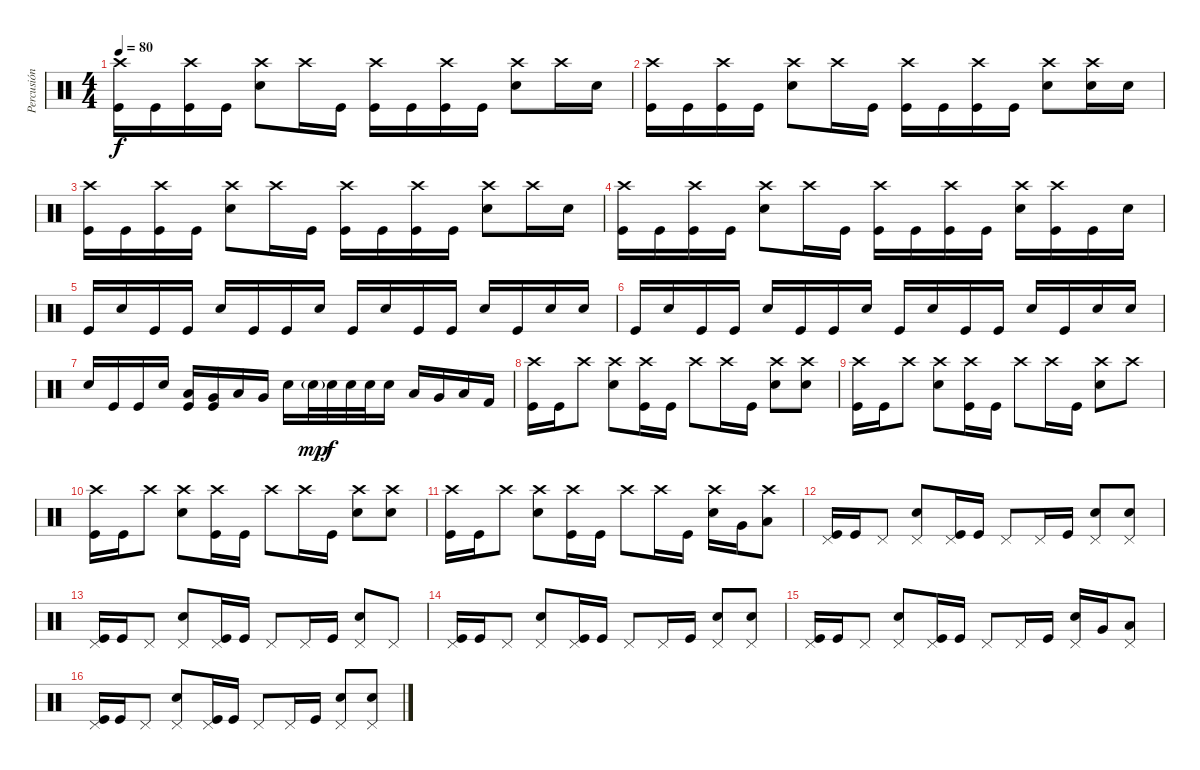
\track ("Percusión" "Percusión") {instrument percussion}
\staff {score}
\articulation defaults
\ts (4 4)
\tempo 80
\clef neutral
\ks c
("Crash high (hit)" "Kick (hit)").16{dy f} "Kick (hit)".16 ("Crash high (hit)" "Kick (hit)").16 "Kick (hit)".16 ("Crash high (hit)" "Snare (hit) 2").8 "Crash high (hit)".16 "Kick (hit)".16 ("Crash high (hit)" "Kick (hit)").16 "Kick (hit)".16 ("Crash high (hit)" "Kick (hit)").16 "Kick (hit)".16 ("Crash high (hit)" "Snare (hit) 2").8 "Crash high (hit)".16 "Snare (hit) 2".16 |
("Crash high (hit)" "Kick (hit)").16 "Kick (hit)".16 ("Crash high (hit)" "Kick (hit)").16 "Kick (hit)".16 ("Crash high (hit)" "Snare (hit) 2").8 "Crash high (hit)".16 "Kick (hit)".16 ("Crash high (hit)" "Kick (hit)").16 "Kick (hit)".16 ("Crash high (hit)" "Kick (hit)").16 "Kick (hit)".16 ("Crash high (hit)" "Snare (hit) 2").8 ("Crash high (hit)" "Snare (hit) 2").16 "Snare (hit) 2".16 |
("Crash high (hit)" "Kick (hit)").16 "Kick (hit)".16 ("Crash high (hit)" "Kick (hit)").16 "Kick (hit)".16 ("Crash high (hit)" "Snare (hit) 2").8 "Crash high (hit)".16 "Kick (hit)".16 ("Crash high (hit)" "Kick (hit)").16 "Kick (hit)".16 ("Crash high (hit)" "Kick (hit)").16 "Kick (hit)".16 ("Crash high (hit)" "Snare (hit) 2").8 "Crash high (hit)".16 "Snare (hit) 2".16 |
("Crash high (hit)" "Kick (hit)").16 "Kick (hit)".16 ("Crash high (hit)" "Kick (hit)").16 "Kick (hit)".16 ("Crash high (hit)" "Snare (hit) 2").8 "Crash high (hit)".16 "Kick (hit)".16 ("Crash high (hit)" "Kick (hit)").16 "Kick (hit)".16 ("Crash high (hit)" "Kick (hit)").16 "Kick (hit)".16 ("Crash high (hit)" "Snare (hit) 2").16 ("Crash high (hit)" "Kick (hit)").16 "Kick (hit)".16 "Snare (hit) 2".16 |
"Kick (hit)".16 "Snare (hit) 2".16 "Kick (hit)".16 "Kick (hit)".16 "Snare (hit) 2".16 "Kick (hit)".16 "Kick (hit)".16 "Snare (hit) 2".16 "Kick (hit)".16 "Snare (hit) 2".16 "Kick (hit)".16 "Kick (hit)".16 "Snare (hit) 2".16 "Kick (hit)".16 "Snare (hit) 2".16 "Snare (hit) 2".16 |
"Kick (hit)".16 "Snare (hit) 2".16 "Kick (hit)".16 "Kick (hit)".16 "Snare (hit) 2".16 "Kick (hit)".16 "Kick (hit)".16 "Snare (hit) 2".16 "Kick (hit)".16 "Snare (hit) 2".16 "Kick (hit)".16 "Kick (hit)".16 "Snare (hit) 2".16 "Kick (hit)".16 "Snare (hit) 2".16 "Snare (hit) 2".16 |
"Snare (hit) 2".16 "Kick (hit)".16 "Kick (hit)".16 "Snare (hit) 2".16 ("Kick (hit)" "Low Tom (hit)").16 ("Kick (hit)" "Very Low Tom (hit)").16 "Low Floor Tom (hit)".16 "Very Low Tom (hit)".16 "Snare (hit) 2".16 "Snare (hit) 2"{g}.32{dy mp} "Snare (hit) 2".32{dy f} "Snare (hit) 2".32 "Snare (hit) 2".32 "Snare (hit) 2".16 "Low Tom (hit)".16 "Very Low Tom (hit)".16 "Low Floor Tom (hit)".16 "Kick (hit) 2".16 |
("Crash high (hit)" "Kick (hit)").16 "Kick (hit)".16 "Crash high (hit)".8 ("Crash high (hit)" "Snare (hit) 2").8 ("Crash high (hit)" "Kick (hit)").16 "Kick (hit)".16 "Crash high (hit)".8 "Crash high (hit)".16 "Kick (hit)".16 ("Crash high (hit)" "Snare (hit) 2").8 ("Crash high (hit)" "Snare (hit) 2").8 |
("Crash high (hit)" "Kick (hit)").16 "Kick (hit)".16 "Crash high (hit)".8 ("Crash high (hit)" "Snare (hit) 2").8 ("Crash high (hit)" "Kick (hit)").16 "Kick (hit)".16 "Crash high (hit)".8 "Crash high (hit)".16 "Kick (hit)".16 ("Crash high (hit)" "Snare (hit) 2").8 "Crash high (hit)".8 |
("Crash high (hit)" "Kick (hit)").16 "Kick (hit)".16 "Crash high (hit)".8 ("Crash high (hit)" "Snare (hit) 2").8 ("Crash high (hit)" "Kick (hit)").16 "Kick (hit)".16 "Crash high (hit)".8 "Crash high (hit)".16 "Kick (hit)".16 ("Crash high (hit)" "Snare (hit) 2").8 ("Crash high (hit)" "Snare (hit) 2").8 |
("Crash high (hit)" "Kick (hit)").16 "Kick (hit)".16 "Crash high (hit)".8 ("Crash high (hit)" "Snare (hit) 2").8 ("Crash high (hit)" "Kick (hit)").16 "Kick (hit)".16 "Crash high (hit)".8 "Crash high (hit)".16 "Kick (hit)".16 ("Crash high (hit)" "Snare (hit) 2").16 "Very Low Tom (hit)".16 ("Crash high (hit)" "Low Floor Tom (hit)").8 |
("Pedal Hi-Hat (hit)" "Kick (hit)").16 "Kick (hit)".16 "Pedal Hi-Hat (hit)".8 ("Pedal Hi-Hat (hit)" "Snare (hit) 2").8 ("Pedal Hi-Hat (hit)" "Kick (hit)").16 "Kick (hit)".16 "Pedal Hi-Hat (hit)".8 "Pedal Hi-Hat (hit)".16 "Kick (hit)".16 ("Pedal Hi-Hat (hit)" "Snare (hit) 2").8 ("Pedal Hi-Hat (hit)" "Snare (hit) 2").8 |
("Pedal Hi-Hat (hit)" "Kick (hit)").16 "Kick (hit)".16 "Pedal Hi-Hat (hit)".8 ("Pedal Hi-Hat (hit)" "Snare (hit) 2").8 ("Pedal Hi-Hat (hit)" "Kick (hit)").16 "Kick (hit)".16 "Pedal Hi-Hat (hit)".8 "Pedal Hi-Hat (hit)".16 "Kick (hit)".16 ("Pedal Hi-Hat (hit)" "Snare (hit) 2").8 "Pedal Hi-Hat (hit)".8 |
("Pedal Hi-Hat (hit)" "Kick (hit)").16 "Kick (hit)".16 "Pedal Hi-Hat (hit)".8 ("Pedal Hi-Hat (hit)" "Snare (hit) 2").8 ("Pedal Hi-Hat (hit)" "Kick (hit)").16 "Kick (hit)".16 "Pedal Hi-Hat (hit)".8 "Pedal Hi-Hat (hit)".16 "Kick (hit)".16 ("Pedal Hi-Hat (hit)" "Snare (hit) 2").8 ("Pedal Hi-Hat (hit)" "Snare (hit) 2").8 |
("Pedal Hi-Hat (hit)" "Kick (hit)").16 "Kick (hit)".16 "Pedal Hi-Hat (hit)".8 ("Pedal Hi-Hat (hit)" "Snare (hit) 2").8 ("Pedal Hi-Hat (hit)" "Kick (hit)").16 "Kick (hit)".16 "Pedal Hi-Hat (hit)".8 "Pedal Hi-Hat (hit)".16 "Kick (hit)".16 ("Pedal Hi-Hat (hit)" "Snare (hit) 2").16 "Very Low Tom (hit)".16 ("Pedal Hi-Hat (hit)" "Low Floor Tom (hit)").8 |
("Pedal Hi-Hat (hit)" "Kick (hit)").16 "Kick (hit)".16 "Pedal Hi-Hat (hit)".8 ("Pedal Hi-Hat (hit)" "Snare (hit) 2").8 ("Pedal Hi-Hat (hit)" "Kick (hit)").16 "Kick (hit)".16 "Pedal Hi-Hat (hit)".8 "Pedal Hi-Hat (hit)".16 "Kick (hit)".16 ("Pedal Hi-Hat (hit)" "Snare (hit) 2").8 ("Pedal Hi-Hat (hit)" "Snare (hit) 2").8
